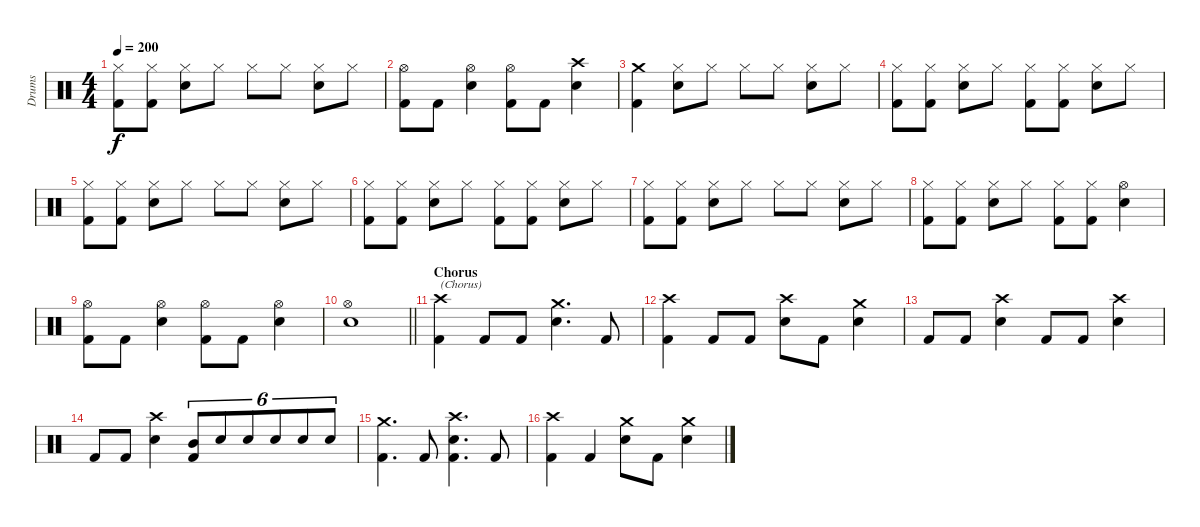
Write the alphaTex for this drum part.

\track ("Drums" "Drums") {instrument percussion}
\staff {score}
\articulation defaults
\ts (4 4)
\tempo 200
\clef neutral
\ks c
("Hi-Hat (closed)" "Kick (hit) 2").8{dy f} ("Hi-Hat (closed)" "Kick (hit) 2").8 ("Hi-Hat (closed)" "Electric Snare (hit)").8 "Hi-Hat (closed)".8 "Hi-Hat (closed)".8 "Hi-Hat (closed)".8 ("Hi-Hat (closed)" "Electric Snare (hit)").8 "Hi-Hat (closed)".8 |
("Hi-Hat (open)" "Kick (hit) 2").8 "Kick (hit) 2".8 ("Hi-Hat (open)" "Electric Snare (hit)").4 ("Hi-Hat (open)" "Kick (hit) 2").8 "Kick (hit) 2".8 ("Crash high (hit)" "Electric Snare (hit)").4 |
("Crash medium (hit)" "Kick (hit) 2").4 ("Hi-Hat (closed)" "Electric Snare (hit)").8 "Hi-Hat (closed)".8 "Hi-Hat (closed)".8 "Hi-Hat (closed)".8 ("Hi-Hat (closed)" "Electric Snare (hit)").8 "Hi-Hat (closed)".8 |
("Hi-Hat (closed)" "Kick (hit) 2").8 ("Hi-Hat (closed)" "Kick (hit) 2").8 ("Hi-Hat (closed)" "Electric Snare (hit)").8 "Hi-Hat (closed)".8 ("Hi-Hat (closed)" "Kick (hit) 2").8 ("Hi-Hat (closed)" "Kick (hit) 2").8 ("Hi-Hat (closed)" "Electric Snare (hit)").8 "Hi-Hat (closed)".8 |
("Hi-Hat (closed)" "Kick (hit) 2").8 ("Hi-Hat (closed)" "Kick (hit) 2").8 ("Hi-Hat (closed)" "Electric Snare (hit)").8 "Hi-Hat (closed)".8 "Hi-Hat (closed)".8 "Hi-Hat (closed)".8 ("Hi-Hat (closed)" "Electric Snare (hit)").8 "Hi-Hat (closed)".8 |
("Hi-Hat (closed)" "Kick (hit) 2").8 ("Hi-Hat (closed)" "Kick (hit) 2").8 ("Hi-Hat (closed)" "Electric Snare (hit)").8 "Hi-Hat (closed)".8 ("Hi-Hat (closed)" "Kick (hit) 2").8 ("Hi-Hat (closed)" "Kick (hit) 2").8 ("Hi-Hat (closed)" "Electric Snare (hit)").8 "Hi-Hat (closed)".8 |
("Hi-Hat (closed)" "Kick (hit) 2").8 ("Hi-Hat (closed)" "Kick (hit) 2").8 ("Hi-Hat (closed)" "Electric Snare (hit)").8 "Hi-Hat (closed)".8 "Hi-Hat (closed)".8 "Hi-Hat (closed)".8 ("Hi-Hat (closed)" "Electric Snare (hit)").8 "Hi-Hat (closed)".8 |
("Hi-Hat (closed)" "Kick (hit) 2").8 ("Hi-Hat (closed)" "Kick (hit) 2").8 ("Hi-Hat (closed)" "Electric Snare (hit)").8 "Hi-Hat (closed)".8 ("Hi-Hat (closed)" "Kick (hit) 2").8 ("Hi-Hat (closed)" "Kick (hit) 2").8 ("Hi-Hat (open)" "Electric Snare (hit)").4 |
("Hi-Hat (open)" "Kick (hit) 2").8 "Kick (hit) 2".8 ("Hi-Hat (open)" "Electric Snare (hit)").4 ("Hi-Hat (open)" "Kick (hit) 2").8 "Kick (hit) 2".8 ("Hi-Hat (open)" "Electric Snare (hit)").4 |
\barLineRight lightlight
("Hi-Hat (open)" "Electric Snare (hit)").1 |
\section ("" "Chorus")
("Crash high (hit)" "Kick (hit) 2").4{txt "(Chorus)"} "Kick (hit) 2".8 "Kick (hit) 2".8 ("Crash medium (hit)" "Electric Snare (hit)").4{d} "Kick (hit) 2".8 |
("Crash high (hit)" "Kick (hit) 2").4 "Kick (hit) 2".8 "Kick (hit) 2".8 ("Crash high (hit)" "Electric Snare (hit)").8 "Kick (hit) 2".8 ("Crash medium (hit)" "Electric Snare (hit)").4 |
"Kick (hit) 2".8 "Kick (hit) 2".8 ("Crash high (hit)" "Electric Snare (hit)").4 "Kick (hit) 2".8 "Kick (hit) 2".8 ("Crash high (hit)" "Electric Snare (hit)").4 |
"Kick (hit) 2".8 "Kick (hit) 2".8 ("Crash high (hit)" "Electric Snare (hit)").4 ("Mid Tom (hit)" "Kick (hit) 2").8{tu (6 4)} "Electric Snare (hit)".8{tu (6 4)} "Electric Snare (hit)".8{tu (6 4)} "Electric Snare (hit)".8{tu (6 4)} "Electric Snare (hit)".8{tu (6 4)} "Electric Snare (hit)".8{tu (6 4)} |
("Crash medium (hit)" "Kick (hit) 2").4{d} "Kick (hit) 2".8 ("Crash high (hit)" "Electric Snare (hit)" "Kick (hit) 2").4{d} "Kick (hit) 2".8 |
("Crash high (hit)" "Kick (hit) 2").4 "Kick (hit) 2".4 ("Crash medium (hit)" "Electric Snare (hit)").8 "Kick (hit) 2".8 ("Crash medium (hit)" "Electric Snare (hit)").4
